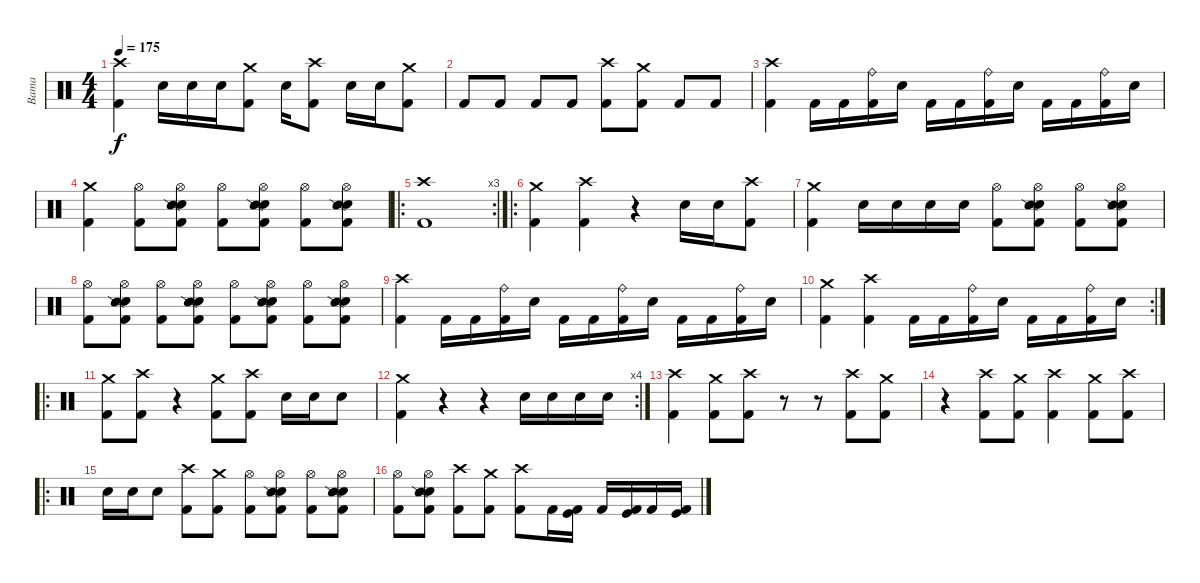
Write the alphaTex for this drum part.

\track ("Bama" "Bama") {instrument percussion}
\staff {score}
\articulation defaults
\ts (4 4)
\tempo 175
\clef neutral
\ks c
("Crash high (hit)" "Kick (hit) 2").4{dy f} "Electric Snare (hit)".16 "Electric Snare (hit)".16 "Electric Snare (hit)".16 ("Crash medium (hit)" "Kick (hit) 2").8 "Electric Snare (hit)".16 ("Crash high (hit)" "Kick (hit) 2").8 "Electric Snare (hit)".16 "Electric Snare (hit)".16 ("Crash medium (hit)" "Kick (hit) 2").8 |
"Kick (hit) 2".8 "Kick (hit) 2".8 "Kick (hit) 2".8 "Kick (hit) 2".8 ("Crash high (hit)" "Kick (hit) 2").8 ("Crash medium (hit)" "Kick (hit) 2").8 "Kick (hit) 2".8 "Kick (hit) 2".8 |
("Crash high (hit)" "Kick (hit) 2").4 "Kick (hit) 2".16 "Kick (hit) 2".16 ("Ride (bell)" "Kick (hit) 2").16 "Electric Snare (hit)".16 "Kick (hit) 2".16 "Kick (hit) 2".16 ("Ride (bell)" "Kick (hit) 2").16 "Electric Snare (hit)".16 "Kick (hit) 2".16 "Kick (hit) 2".16 ("Ride (bell)" "Kick (hit) 2").16 "Electric Snare (hit)".16 |
("Crash medium (hit)" "Kick (hit) 2").4 ("Hi-Hat (open)" "Kick (hit) 2").8 ("Hi-Hat (open)" "Electric Snare (hit)" "Snare (side stick) 2" "Kick (hit) 2").8 ("Hi-Hat (open)" "Kick (hit) 2").8 ("Hi-Hat (open)" "Electric Snare (hit)" "Snare (side stick) 2" "Kick (hit) 2").8 ("Hi-Hat (open)" "Kick (hit) 2").8 ("Hi-Hat (open)" "Electric Snare (hit)" "Snare (side stick) 2" "Kick (hit) 2").8 |
\ro
\rc 3
("Crash high (hit)" "Kick (hit) 2").1 |
\ro
("Crash medium (hit)" "Kick (hit) 2").4 ("Crash high (hit)" "Kick (hit) 2").4 r.4 "Electric Snare (hit)".16 "Electric Snare (hit)".16 ("Crash high (hit)" "Kick (hit) 2").8 |
("Crash medium (hit)" "Kick (hit) 2").4 "Electric Snare (hit)".16 "Electric Snare (hit)".16 "Electric Snare (hit)".16 "Electric Snare (hit)".16 ("Hi-Hat (open)" "Kick (hit) 2").8 ("Hi-Hat (open)" "Electric Snare (hit)" "Snare (side stick) 2" "Kick (hit) 2").8 ("Hi-Hat (open)" "Kick (hit) 2").8 ("Hi-Hat (open)" "Electric Snare (hit)" "Snare (side stick) 2" "Kick (hit) 2").8 |
("Hi-Hat (open)" "Kick (hit) 2").8 ("Hi-Hat (open)" "Electric Snare (hit)" "Snare (side stick) 2" "Kick (hit) 2").8 ("Hi-Hat (open)" "Kick (hit) 2").8 ("Hi-Hat (open)" "Electric Snare (hit)" "Snare (side stick) 2" "Kick (hit) 2").8 ("Hi-Hat (open)" "Kick (hit) 2").8 ("Hi-Hat (open)" "Electric Snare (hit)" "Snare (side stick) 2" "Kick (hit) 2").8 ("Hi-Hat (open)" "Kick (hit) 2").8 ("Hi-Hat (open)" "Electric Snare (hit)" "Snare (side stick) 2" "Kick (hit) 2").8 |
("Crash high (hit)" "Kick (hit) 2").4 "Kick (hit) 2".16 "Kick (hit) 2".16 ("Ride (bell)" "Kick (hit) 2").16 "Electric Snare (hit)".16 "Kick (hit) 2".16 "Kick (hit) 2".16 ("Ride (bell)" "Kick (hit) 2").16 "Electric Snare (hit)".16 "Kick (hit) 2".16 "Kick (hit) 2".16 ("Ride (bell)" "Kick (hit) 2").16 "Electric Snare (hit)".16 |
\rc 2
("Crash medium (hit)" "Kick (hit) 2").4 ("Crash high (hit)" "Kick (hit) 2").4 "Kick (hit) 2".16 "Kick (hit) 2".16 ("Ride (bell)" "Kick (hit) 2").16 "Electric Snare (hit)".16 "Kick (hit) 2".16 "Kick (hit) 2".16 ("Ride (bell)" "Kick (hit) 2").16 "Electric Snare (hit)".16 |
\ro
("Crash medium (hit)" "Kick (hit) 2").8 ("Crash high (hit)" "Kick (hit) 2").8 r.4 ("Crash medium (hit)" "Kick (hit) 2").8 ("Crash high (hit)" "Kick (hit) 2").8 "Electric Snare (hit)".16 "Electric Snare (hit)".16 "Electric Snare (hit)".8 |
\rc 4
("Crash medium (hit)" "Kick (hit) 2").4 r.4 r.4 "Electric Snare (hit)".16 "Electric Snare (hit)".16 "Electric Snare (hit)".16 "Electric Snare (hit)".16 |
("Crash high (hit)" "Kick (hit) 2").4 ("Crash medium (hit)" "Kick (hit) 2").8 ("Crash high (hit)" "Kick (hit) 2").8 r.8 r.8 ("Crash high (hit)" "Kick (hit) 2").8 ("Crash medium (hit)" "Kick (hit) 2").8 |
r.4 ("Crash high (hit)" "Kick (hit) 2").8 ("Crash medium (hit)" "Kick (hit) 2").8 ("Crash high (hit)" "Kick (hit) 2").4 ("Crash medium (hit)" "Kick (hit) 2").8 ("Crash high (hit)" "Kick (hit) 2").8 |
\ro "Electric Snare (hit)".16 "Electric Snare (hit)".16 "Electric Snare (hit)".8
("Crash high (hit)" "Kick (hit) 2").8 ("Crash medium (hit)" "Kick (hit) 2").8 ("Hi-Hat (open)" "Kick (hit) 2").8 ("Hi-Hat (open)" "Electric Snare (hit)" "Snare (side stick) 2" "Kick (hit) 2").8 ("Hi-Hat (open)" "Kick (hit) 2").8 ("Hi-Hat (open)" "Electric Snare (hit)" "Snare (side stick) 2" "Kick (hit) 2").8 |
("Hi-Hat (open)" "Kick (hit) 2").8 ("Hi-Hat (open)" "Electric Snare (hit)" "Snare (side stick) 2" "Kick (hit) 2").8 ("Crash high (hit)" "Kick (hit) 2").8 ("Crash medium (hit)" "Kick (hit) 2").8 ("Crash high (hit)" "Kick (hit) 2").8 "Kick (hit) 2".16 ("Kick (hit)" "Kick (hit) 2").16 "Kick (hit) 2".16 ("Kick (hit)" "Kick (hit) 2").16 "Kick (hit) 2".16 ("Kick (hit)" "Kick (hit) 2").16
